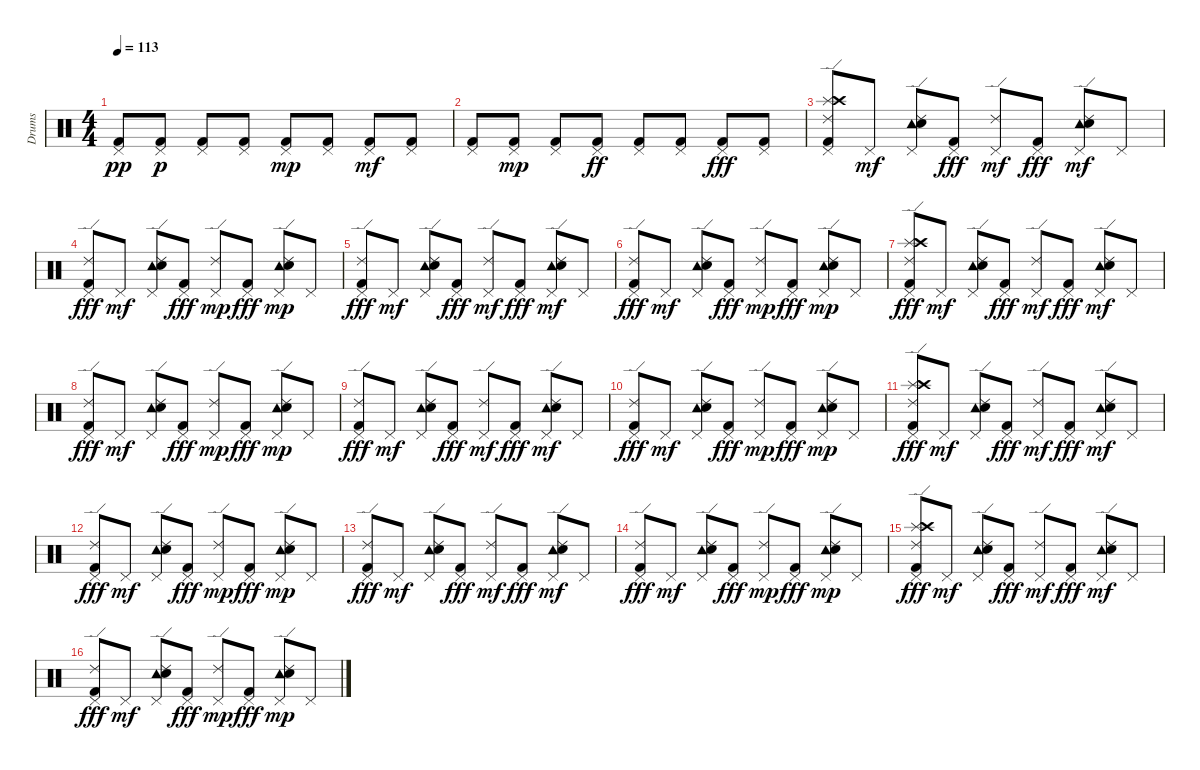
\track ("Drums" "Drums") {instrument percussion}
\staff {score}
\articulation defaults
\ts (4 4)
\tempo 113
\clef neutral
\ks c
("Pedal Hi-Hat (hit)" "Kick (hit) 2").8{dy pp} ("Pedal Hi-Hat (hit)" "Kick (hit) 2").8{dy p} ("Pedal Hi-Hat (hit)" "Kick (hit) 2").8 ("Pedal Hi-Hat (hit)" "Kick (hit) 2").8 ("Pedal Hi-Hat (hit)" "Kick (hit) 2").8{dy mp} ("Pedal Hi-Hat (hit)" "Kick (hit) 2").8 ("Pedal Hi-Hat (hit)" "Kick (hit) 2").8{dy mf} ("Pedal Hi-Hat (hit)" "Kick (hit) 2").8 |
("Pedal Hi-Hat (hit)" "Kick (hit) 2").8 ("Pedal Hi-Hat (hit)" "Kick (hit) 2").8{dy mp} ("Pedal Hi-Hat (hit)" "Kick (hit) 2").8 ("Pedal Hi-Hat (hit)" "Kick (hit) 2").8{dy ff} ("Pedal Hi-Hat (hit)" "Kick (hit) 2").8 ("Pedal Hi-Hat (hit)" "Kick (hit) 2").8 ("Pedal Hi-Hat (hit)" "Kick (hit) 2").8{dy fff} ("Pedal Hi-Hat (hit)" "Kick (hit) 2").8 |
("Splash (hit)" "Crash high (hit)" "Ride (edge) 2" "Pedal Hi-Hat (hit)" "Kick (hit) 2").8 "Pedal Hi-Hat (hit)".8{dy mf} ("Ride (edge) 2" "Tambourine (hit)" "Pedal Hi-Hat (hit)" "Electric Snare (hit)").8 ("Pedal Hi-Hat (hit)" "Kick (hit) 2").8{dy fff} ("Ride (edge) 2" "Pedal Hi-Hat (hit)").8{dy mf} ("Pedal Hi-Hat (hit)" "Kick (hit) 2").8{dy fff} ("Ride (edge) 2" "Tambourine (hit)" "Pedal Hi-Hat (hit)" "Electric Snare (hit)").8{dy mf} "Pedal Hi-Hat (hit)".8 |
("Ride (edge) 2" "Pedal Hi-Hat (hit)" "Kick (hit) 2").8{dy fff} "Pedal Hi-Hat (hit)".8{dy mf} ("Ride (edge) 2" "Tambourine (hit)" "Pedal Hi-Hat (hit)" "Electric Snare (hit)").8 ("Pedal Hi-Hat (hit)" "Kick (hit) 2").8{dy fff} ("Ride (edge) 2" "Pedal Hi-Hat (hit)").8{dy mp} ("Pedal Hi-Hat (hit)" "Kick (hit) 2").8{dy fff} ("Ride (edge) 2" "Tambourine (hit)" "Pedal Hi-Hat (hit)" "Electric Snare (hit)").8{dy mp} "Pedal Hi-Hat (hit)".8 |
("Ride (edge) 2" "Pedal Hi-Hat (hit)" "Kick (hit) 2").8{dy fff} "Pedal Hi-Hat (hit)".8{dy mf} ("Ride (edge) 2" "Tambourine (hit)" "Pedal Hi-Hat (hit)" "Electric Snare (hit)").8 ("Pedal Hi-Hat (hit)" "Kick (hit) 2").8{dy fff} ("Ride (edge) 2" "Pedal Hi-Hat (hit)").8{dy mf} ("Pedal Hi-Hat (hit)" "Kick (hit) 2").8{dy fff} ("Ride (edge) 2" "Tambourine (hit)" "Pedal Hi-Hat (hit)" "Electric Snare (hit)").8{dy mf} "Pedal Hi-Hat (hit)".8 |
("Ride (edge) 2" "Pedal Hi-Hat (hit)" "Kick (hit) 2").8{dy fff} "Pedal Hi-Hat (hit)".8{dy mf} ("Ride (edge) 2" "Tambourine (hit)" "Pedal Hi-Hat (hit)" "Electric Snare (hit)").8 ("Pedal Hi-Hat (hit)" "Kick (hit) 2").8{dy fff} ("Ride (edge) 2" "Pedal Hi-Hat (hit)").8{dy mp} ("Pedal Hi-Hat (hit)" "Kick (hit) 2").8{dy fff} ("Ride (edge) 2" "Tambourine (hit)" "Pedal Hi-Hat (hit)" "Electric Snare (hit)").8{dy mp} "Pedal Hi-Hat (hit)".8 |
("Splash (hit)" "Crash high (hit)" "Ride (edge) 2" "Pedal Hi-Hat (hit)" "Kick (hit) 2").8{dy fff} "Pedal Hi-Hat (hit)".8{dy mf} ("Ride (edge) 2" "Tambourine (hit)" "Pedal Hi-Hat (hit)" "Electric Snare (hit)").8 ("Pedal Hi-Hat (hit)" "Kick (hit) 2").8{dy fff} ("Ride (edge) 2" "Pedal Hi-Hat (hit)").8{dy mf} ("Pedal Hi-Hat (hit)" "Kick (hit) 2").8{dy fff} ("Ride (edge) 2" "Tambourine (hit)" "Pedal Hi-Hat (hit)" "Electric Snare (hit)").8{dy mf} "Pedal Hi-Hat (hit)".8 |
("Ride (edge) 2" "Pedal Hi-Hat (hit)" "Kick (hit) 2").8{dy fff} "Pedal Hi-Hat (hit)".8{dy mf} ("Ride (edge) 2" "Tambourine (hit)" "Pedal Hi-Hat (hit)" "Electric Snare (hit)").8 ("Pedal Hi-Hat (hit)" "Kick (hit) 2").8{dy fff} ("Ride (edge) 2" "Pedal Hi-Hat (hit)").8{dy mp} ("Pedal Hi-Hat (hit)" "Kick (hit) 2").8{dy fff} ("Ride (edge) 2" "Tambourine (hit)" "Pedal Hi-Hat (hit)" "Electric Snare (hit)").8{dy mp} "Pedal Hi-Hat (hit)".8 |
("Ride (edge) 2" "Pedal Hi-Hat (hit)" "Kick (hit) 2").8{dy fff} "Pedal Hi-Hat (hit)".8{dy mf} ("Ride (edge) 2" "Tambourine (hit)" "Pedal Hi-Hat (hit)" "Electric Snare (hit)").8 ("Pedal Hi-Hat (hit)" "Kick (hit) 2").8{dy fff} ("Ride (edge) 2" "Pedal Hi-Hat (hit)").8{dy mf} ("Pedal Hi-Hat (hit)" "Kick (hit) 2").8{dy fff} ("Ride (edge) 2" "Tambourine (hit)" "Pedal Hi-Hat (hit)" "Electric Snare (hit)").8{dy mf} "Pedal Hi-Hat (hit)".8 |
("Ride (edge) 2" "Pedal Hi-Hat (hit)" "Kick (hit) 2").8{dy fff} "Pedal Hi-Hat (hit)".8{dy mf} ("Ride (edge) 2" "Tambourine (hit)" "Pedal Hi-Hat (hit)" "Electric Snare (hit)").8 ("Pedal Hi-Hat (hit)" "Kick (hit) 2").8{dy fff} ("Ride (edge) 2" "Pedal Hi-Hat (hit)").8{dy mp} ("Pedal Hi-Hat (hit)" "Kick (hit) 2").8{dy fff} ("Ride (edge) 2" "Tambourine (hit)" "Pedal Hi-Hat (hit)" "Electric Snare (hit)").8{dy mp} "Pedal Hi-Hat (hit)".8 |
("Splash (hit)" "Crash high (hit)" "Ride (edge) 2" "Pedal Hi-Hat (hit)" "Kick (hit) 2").8{dy fff} "Pedal Hi-Hat (hit)".8{dy mf} ("Ride (edge) 2" "Tambourine (hit)" "Pedal Hi-Hat (hit)" "Electric Snare (hit)").8 ("Pedal Hi-Hat (hit)" "Kick (hit) 2").8{dy fff} ("Ride (edge) 2" "Pedal Hi-Hat (hit)").8{dy mf} ("Pedal Hi-Hat (hit)" "Kick (hit) 2").8{dy fff} ("Ride (edge) 2" "Tambourine (hit)" "Pedal Hi-Hat (hit)" "Electric Snare (hit)").8{dy mf} "Pedal Hi-Hat (hit)".8 |
("Ride (edge) 2" "Pedal Hi-Hat (hit)" "Kick (hit) 2").8{dy fff} "Pedal Hi-Hat (hit)".8{dy mf} ("Ride (edge) 2" "Tambourine (hit)" "Pedal Hi-Hat (hit)" "Electric Snare (hit)").8 ("Pedal Hi-Hat (hit)" "Kick (hit) 2").8{dy fff} ("Ride (edge) 2" "Pedal Hi-Hat (hit)").8{dy mp} ("Pedal Hi-Hat (hit)" "Kick (hit) 2").8{dy fff} ("Ride (edge) 2" "Tambourine (hit)" "Pedal Hi-Hat (hit)" "Electric Snare (hit)").8{dy mp} "Pedal Hi-Hat (hit)".8 |
("Ride (edge) 2" "Pedal Hi-Hat (hit)" "Kick (hit) 2").8{dy fff} "Pedal Hi-Hat (hit)".8{dy mf} ("Ride (edge) 2" "Tambourine (hit)" "Pedal Hi-Hat (hit)" "Electric Snare (hit)").8 ("Pedal Hi-Hat (hit)" "Kick (hit) 2").8{dy fff} ("Ride (edge) 2" "Pedal Hi-Hat (hit)").8{dy mf} ("Pedal Hi-Hat (hit)" "Kick (hit) 2").8{dy fff} ("Ride (edge) 2" "Tambourine (hit)" "Pedal Hi-Hat (hit)" "Electric Snare (hit)").8{dy mf} "Pedal Hi-Hat (hit)".8 |
("Ride (edge) 2" "Pedal Hi-Hat (hit)" "Kick (hit) 2").8{dy fff} "Pedal Hi-Hat (hit)".8{dy mf} ("Ride (edge) 2" "Tambourine (hit)" "Pedal Hi-Hat (hit)" "Electric Snare (hit)").8 ("Pedal Hi-Hat (hit)" "Kick (hit) 2").8{dy fff} ("Ride (edge) 2" "Pedal Hi-Hat (hit)").8{dy mp} ("Pedal Hi-Hat (hit)" "Kick (hit) 2").8{dy fff} ("Ride (edge) 2" "Tambourine (hit)" "Pedal Hi-Hat (hit)" "Electric Snare (hit)").8{dy mp} "Pedal Hi-Hat (hit)".8 |
("Splash (hit)" "Crash high (hit)" "Ride (edge) 2" "Pedal Hi-Hat (hit)" "Kick (hit) 2").8{dy fff} "Pedal Hi-Hat (hit)".8{dy mf} ("Ride (edge) 2" "Tambourine (hit)" "Pedal Hi-Hat (hit)" "Electric Snare (hit)").8 ("Pedal Hi-Hat (hit)" "Kick (hit) 2").8{dy fff} ("Ride (edge) 2" "Pedal Hi-Hat (hit)").8{dy mf} ("Pedal Hi-Hat (hit)" "Kick (hit) 2").8{dy fff} ("Ride (edge) 2" "Tambourine (hit)" "Pedal Hi-Hat (hit)" "Electric Snare (hit)").8{dy mf} "Pedal Hi-Hat (hit)".8 |
("Ride (edge) 2" "Pedal Hi-Hat (hit)" "Kick (hit) 2").8{dy fff} "Pedal Hi-Hat (hit)".8{dy mf} ("Ride (edge) 2" "Tambourine (hit)" "Pedal Hi-Hat (hit)" "Electric Snare (hit)").8 ("Pedal Hi-Hat (hit)" "Kick (hit) 2").8{dy fff} ("Ride (edge) 2" "Pedal Hi-Hat (hit)").8{dy mp} ("Pedal Hi-Hat (hit)" "Kick (hit) 2").8{dy fff} ("Ride (edge) 2" "Tambourine (hit)" "Pedal Hi-Hat (hit)" "Electric Snare (hit)").8{dy mp} "Pedal Hi-Hat (hit)".8
